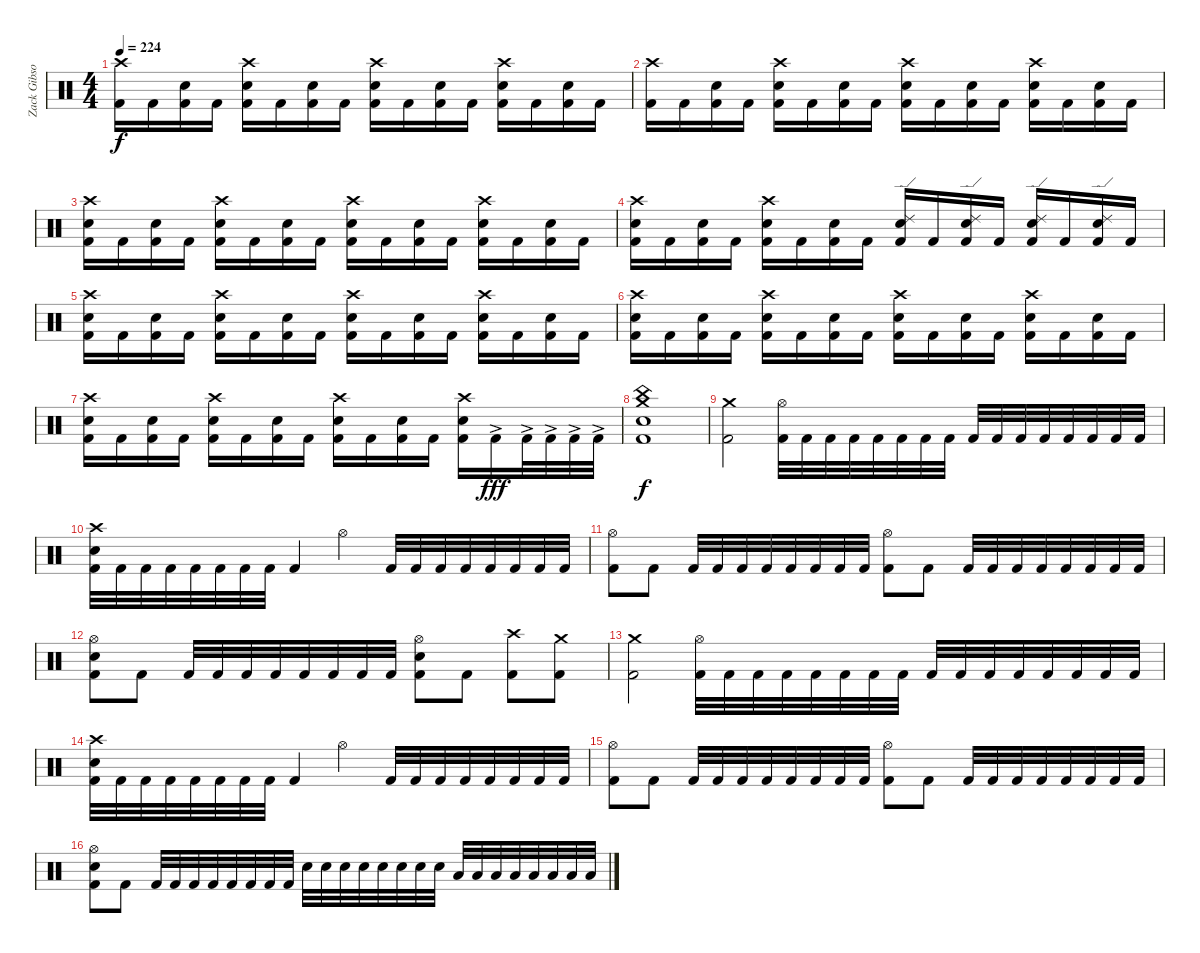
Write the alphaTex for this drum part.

\track ("Zack Gibson" "Zack Gibso") {instrument percussion}
\staff {score}
\articulation defaults
\ts (4 4)
\tempo 224
\clef neutral
\ks c
("Crash high (hit)" "Kick (hit) 2").16{dy f} "Kick (hit) 2".16 ("Snare (hit) 2" "Kick (hit) 2").16 "Kick (hit) 2".16 ("Kick (hit) 2" "Crash high (hit)" "Snare (hit) 2").16 "Kick (hit) 2".16 ("Snare (hit) 2" "Kick (hit) 2").16 "Kick (hit) 2".16 ("Kick (hit) 2" "Crash high (hit)" "Snare (hit) 2").16 "Kick (hit) 2".16 ("Snare (hit) 2" "Kick (hit) 2").16 "Kick (hit) 2".16 ("Kick (hit) 2" "Crash high (hit)" "Snare (hit) 2").16 "Kick (hit) 2".16 ("Snare (hit) 2" "Kick (hit) 2").16 "Kick (hit) 2".16 |
("Crash high (hit)" "Kick (hit) 2").16 "Kick (hit) 2".16 ("Snare (hit) 2" "Kick (hit) 2").16 "Kick (hit) 2".16 ("Kick (hit) 2" "Crash high (hit)" "Snare (hit) 2").16 "Kick (hit) 2".16 ("Snare (hit) 2" "Kick (hit) 2").16 "Kick (hit) 2".16 ("Kick (hit) 2" "Crash high (hit)" "Snare (hit) 2").16 "Kick (hit) 2".16 ("Snare (hit) 2" "Kick (hit) 2").16 "Kick (hit) 2".16 ("Kick (hit) 2" "Crash high (hit)" "Snare (hit) 2").16 "Kick (hit) 2".16 ("Snare (hit) 2" "Kick (hit) 2").16 "Kick (hit) 2".16 |
("Crash high (hit)" "Snare (hit) 2" "Kick (hit) 2").16 "Kick (hit) 2".16 ("Snare (hit) 2" "Kick (hit) 2").16 "Kick (hit) 2".16 ("Kick (hit) 2" "Crash high (hit)" "Snare (hit) 2").16 "Kick (hit) 2".16 ("Snare (hit) 2" "Kick (hit) 2").16 "Kick (hit) 2".16 ("Kick (hit) 2" "Crash high (hit)" "Snare (hit) 2").16 "Kick (hit) 2".16 ("Snare (hit) 2" "Kick (hit) 2").16 "Kick (hit) 2".16 ("Kick (hit) 2" "Crash high (hit)" "Snare (hit) 2").16 "Kick (hit) 2".16 ("Snare (hit) 2" "Kick (hit) 2").16 "Kick (hit) 2".16 |
("Crash high (hit)" "Snare (hit) 2" "Kick (hit) 2").16 "Kick (hit) 2".16 ("Snare (hit) 2" "Kick (hit) 2").16 "Kick (hit) 2".16 ("Kick (hit) 2" "Crash high (hit)" "Snare (hit) 2").16 "Kick (hit) 2".16 ("Snare (hit) 2" "Kick (hit) 2").16 "Kick (hit) 2".16 ("Kick (hit) 2" "Ride (edge) 2" "Snare (hit) 2").16 "Kick (hit) 2".16 ("Snare (hit) 2" "Ride (edge) 2" "Kick (hit) 2").16 "Kick (hit) 2".16 ("Kick (hit) 2" "Ride (edge) 2" "Snare (hit) 2").16 "Kick (hit) 2".16 ("Snare (hit) 2" "Ride (edge) 2" "Kick (hit) 2").16 "Kick (hit) 2".16 |
("Crash high (hit)" "Snare (hit) 2" "Kick (hit) 2").16 "Kick (hit) 2".16 ("Snare (hit) 2" "Kick (hit) 2").16 "Kick (hit) 2".16 ("Kick (hit) 2" "Crash high (hit)" "Snare (hit) 2").16 "Kick (hit) 2".16 ("Snare (hit) 2" "Kick (hit) 2").16 "Kick (hit) 2".16 ("Kick (hit) 2" "Crash high (hit)" "Snare (hit) 2").16 "Kick (hit) 2".16 ("Snare (hit) 2" "Kick (hit) 2").16 "Kick (hit) 2".16 ("Kick (hit) 2" "Crash high (hit)" "Snare (hit) 2").16 "Kick (hit) 2".16 ("Snare (hit) 2" "Kick (hit) 2").16 "Kick (hit) 2".16 |
("Crash high (hit)" "Snare (hit) 2" "Kick (hit) 2").16 "Kick (hit) 2".16 ("Snare (hit) 2" "Kick (hit) 2").16 "Kick (hit) 2".16 ("Kick (hit) 2" "Crash high (hit)" "Snare (hit) 2").16 "Kick (hit) 2".16 ("Snare (hit) 2" "Kick (hit) 2").16 "Kick (hit) 2".16 ("Kick (hit) 2" "Crash high (hit)" "Snare (hit) 2").16 "Kick (hit) 2".16 ("Snare (hit) 2" "Kick (hit) 2").16 "Kick (hit) 2".16 ("Kick (hit) 2" "Crash high (hit)" "Snare (hit) 2").16 "Kick (hit) 2".16 ("Snare (hit) 2" "Kick (hit) 2").16 "Kick (hit) 2".16 |
("Crash high (hit)" "Snare (hit) 2" "Kick (hit) 2").16 "Kick (hit) 2".16 ("Snare (hit) 2" "Kick (hit) 2").16 "Kick (hit) 2".16 ("Kick (hit) 2" "Crash high (hit)" "Snare (hit) 2").16 "Kick (hit) 2".16 ("Snare (hit) 2" "Kick (hit) 2").16 "Kick (hit) 2".16 ("Kick (hit) 2" "Crash high (hit)" "Snare (hit) 2").16 "Kick (hit) 2".16 ("Snare (hit) 2" "Kick (hit) 2").16 "Kick (hit) 2".16 ("Kick (hit) 2" "Crash high (hit)" "Snare (hit) 2").16 "Kick (hit) 2"{ac}.16{dy fff} "Kick (hit) 2"{ac}.32 "Kick (hit) 2"{ac}.32 "Kick (hit) 2"{ac}.32 "Kick (hit) 2"{ac}.32 |
("China (hit)" "Crash medium (hit)" "Snare (hit) 2" "Kick (hit) 2").1{dy f} |
("Crash medium (hit)" "Kick (hit) 2").2 ("Hi-Hat (open)" "Kick (hit) 2").32 "Kick (hit) 2".32 "Kick (hit) 2".32 "Kick (hit) 2".32 "Kick (hit) 2".32 "Kick (hit) 2".32 "Kick (hit) 2".32 "Kick (hit) 2".32 "Kick (hit) 2".32 "Kick (hit) 2".32 "Kick (hit) 2".32 "Kick (hit) 2".32 "Kick (hit) 2".32 "Kick (hit) 2".32 "Kick (hit) 2".32 "Kick (hit) 2".32 |
("Kick (hit) 2" "Crash high (hit)" "Snare (hit) 2").32 "Kick (hit) 2".32 "Kick (hit) 2".32 "Kick (hit) 2".32 "Kick (hit) 2".32 "Kick (hit) 2".32 "Kick (hit) 2".32 "Kick (hit) 2".32 "Kick (hit) 2".4 "Hi-Hat (open)".4 "Kick (hit) 2".32 "Kick (hit) 2".32 "Kick (hit) 2".32 "Kick (hit) 2".32 "Kick (hit) 2".32 "Kick (hit) 2".32 "Kick (hit) 2".32 "Kick (hit) 2".32 |
("Hi-Hat (open)" "Kick (hit) 2").8 "Kick (hit) 2".8 "Kick (hit) 2".32 "Kick (hit) 2".32 "Kick (hit) 2".32 "Kick (hit) 2".32 "Kick (hit) 2".32 "Kick (hit) 2".32 "Kick (hit) 2".32 "Kick (hit) 2".32 ("Hi-Hat (open)" "Kick (hit) 2").8 "Kick (hit) 2".8 "Kick (hit) 2".32 "Kick (hit) 2".32 "Kick (hit) 2".32 "Kick (hit) 2".32 "Kick (hit) 2".32 "Kick (hit) 2".32 "Kick (hit) 2".32 "Kick (hit) 2".32 |
("Snare (hit) 2" "Hi-Hat (open)" "Kick (hit) 2").8 "Kick (hit) 2".8 "Kick (hit) 2".32 "Kick (hit) 2".32 "Kick (hit) 2".32 "Kick (hit) 2".32 "Kick (hit) 2".32 "Kick (hit) 2".32 "Kick (hit) 2".32 "Kick (hit) 2".32 ("Snare (hit) 2" "Hi-Hat (open)" "Kick (hit) 2").8 "Kick (hit) 2".8 ("Crash high (hit)" "Kick (hit) 2").8 ("Crash medium (hit)" "Kick (hit) 2").8 |
("Crash medium (hit)" "Kick (hit) 2").2 ("Hi-Hat (open)" "Kick (hit) 2").32 "Kick (hit) 2".32 "Kick (hit) 2".32 "Kick (hit) 2".32 "Kick (hit) 2".32 "Kick (hit) 2".32 "Kick (hit) 2".32 "Kick (hit) 2".32 "Kick (hit) 2".32 "Kick (hit) 2".32 "Kick (hit) 2".32 "Kick (hit) 2".32 "Kick (hit) 2".32 "Kick (hit) 2".32 "Kick (hit) 2".32 "Kick (hit) 2".32 |
("Kick (hit) 2" "Crash high (hit)" "Snare (hit) 2").32 "Kick (hit) 2".32 "Kick (hit) 2".32 "Kick (hit) 2".32 "Kick (hit) 2".32 "Kick (hit) 2".32 "Kick (hit) 2".32 "Kick (hit) 2".32 "Kick (hit) 2".4 "Hi-Hat (open)".4 "Kick (hit) 2".32 "Kick (hit) 2".32 "Kick (hit) 2".32 "Kick (hit) 2".32 "Kick (hit) 2".32 "Kick (hit) 2".32 "Kick (hit) 2".32 "Kick (hit) 2".32 |
("Hi-Hat (open)" "Kick (hit) 2").8 "Kick (hit) 2".8 "Kick (hit) 2".32 "Kick (hit) 2".32 "Kick (hit) 2".32 "Kick (hit) 2".32 "Kick (hit) 2".32 "Kick (hit) 2".32 "Kick (hit) 2".32 "Kick (hit) 2".32 ("Hi-Hat (open)" "Kick (hit) 2").8 "Kick (hit) 2".8 "Kick (hit) 2".32 "Kick (hit) 2".32 "Kick (hit) 2".32 "Kick (hit) 2".32 "Kick (hit) 2".32 "Kick (hit) 2".32 "Kick (hit) 2".32 "Kick (hit) 2".32 |
("Snare (hit) 2" "Hi-Hat (open)" "Kick (hit) 2").8 "Kick (hit) 2".8 "Kick (hit) 2".32 "Kick (hit) 2".32 "Kick (hit) 2".32 "Kick (hit) 2".32 "Kick (hit) 2".32 "Kick (hit) 2".32 "Kick (hit) 2".32 "Kick (hit) 2".32 "Snare (hit) 2".32 "Snare (hit) 2".32 "Snare (hit) 2".32 "Snare (hit) 2".32 "Snare (hit) 2".32 "Snare (hit) 2".32 "Snare (hit) 2".32 "Snare (hit) 2".32 "Low Tom (hit)".32 "Low Tom (hit)".32 "Low Tom (hit)".32 "Low Tom (hit)".32 "Low Tom (hit)".32 "Low Tom (hit)".32 "Low Tom (hit)".32 "Low Tom (hit)".32
